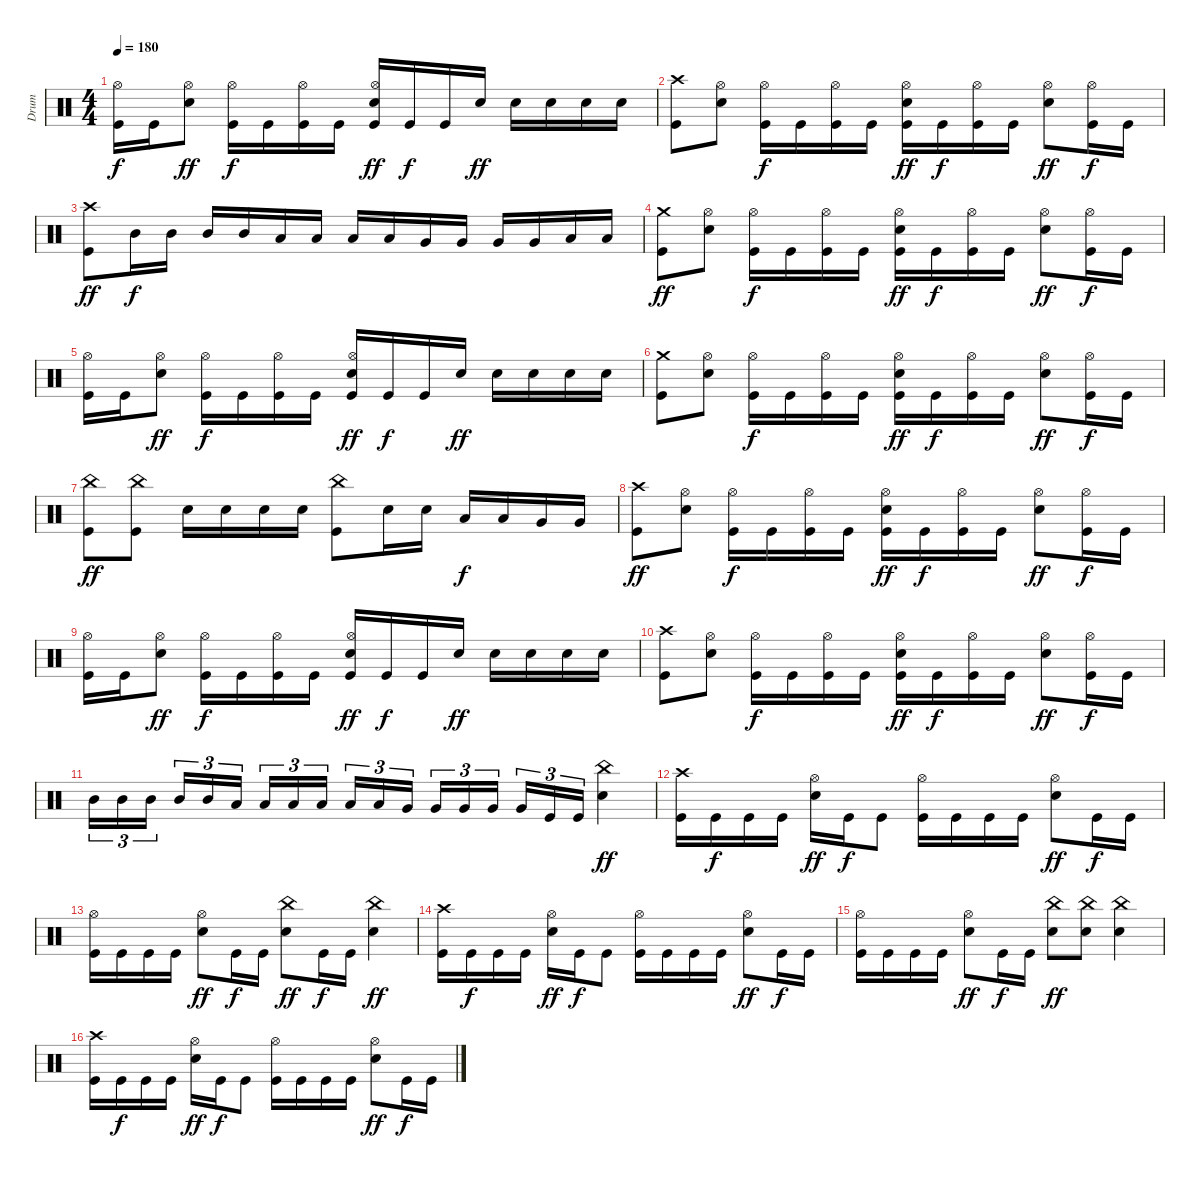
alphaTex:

\track ("Drum" "Drum") {instrument percussion}
\staff {score}
\articulation defaults
\ts (4 4)
\tempo 180
\clef neutral
\ks c
("Kick (hit)" "Hi-Hat (open)").16{dy f} "Kick (hit)".16 ("Electric Snare (hit)" "Hi-Hat (open)").8{dy ff} ("Kick (hit)" "Hi-Hat (open)").16{dy f} "Kick (hit)".16 ("Kick (hit)" "Hi-Hat (open)").16 "Kick (hit)".16 ("Kick (hit)" "Electric Snare (hit)" "Hi-Hat (open)").16{dy ff} "Kick (hit)".16{dy f} "Kick (hit)".16 "Electric Snare (hit)".16{dy ff} "Electric Snare (hit)".16 "Electric Snare (hit)".16 "Electric Snare (hit)".16 "Electric Snare (hit)".16 |
("Kick (hit)" "Crash high (hit)").8 ("Electric Snare (hit)" "Hi-Hat (open)").8 ("Kick (hit)" "Hi-Hat (open)").16{dy f} "Kick (hit)".16 ("Kick (hit)" "Hi-Hat (open)").16 "Kick (hit)".16 ("Kick (hit)" "Electric Snare (hit)" "Hi-Hat (open)").16{dy ff} "Kick (hit)".16{dy f} ("Kick (hit)" "Hi-Hat (open)").16 "Kick (hit)".16 ("Electric Snare (hit)" "Hi-Hat (open)").8{dy ff} ("Kick (hit)" "Hi-Hat (open)").16{dy f} "Kick (hit)".16 |
("Kick (hit)" "Crash high (hit)").8{dy ff} "Mid Tom (hit)".16{dy f} "Mid Tom (hit)".16 "Mid Tom (hit)".16 "Mid Tom (hit)".16 "Low Tom (hit)".16 "Low Tom (hit)".16 "Low Tom (hit)".16 "Low Tom (hit)".16 "Very Low Tom (hit)".16 "Very Low Tom (hit)".16 "Very Low Tom (hit)".16 "Very Low Tom (hit)".16 "Low Floor Tom (hit)".16 "Low Floor Tom (hit)".16 |
("Kick (hit)" "Crash medium (hit)").8{dy ff} ("Electric Snare (hit)" "Hi-Hat (open)").8 ("Kick (hit)" "Hi-Hat (open)").16{dy f} "Kick (hit)".16 ("Kick (hit)" "Hi-Hat (open)").16 "Kick (hit)".16 ("Kick (hit)" "Electric Snare (hit)" "Hi-Hat (open)").16{dy ff} "Kick (hit)".16{dy f} ("Kick (hit)" "Hi-Hat (open)").16 "Kick (hit)".16 ("Electric Snare (hit)" "Hi-Hat (open)").8{dy ff} ("Kick (hit)" "Hi-Hat (open)").16{dy f} "Kick (hit)".16 |
("Kick (hit)" "Hi-Hat (open)").16 "Kick (hit)".16 ("Electric Snare (hit)" "Hi-Hat (open)").8{dy ff} ("Kick (hit)" "Hi-Hat (open)").16{dy f} "Kick (hit)".16 ("Kick (hit)" "Hi-Hat (open)").16 "Kick (hit)".16 ("Kick (hit)" "Electric Snare (hit)" "Hi-Hat (open)").16{dy ff} "Kick (hit)".16{dy f} "Kick (hit)".16 "Electric Snare (hit)".16{dy ff} "Electric Snare (hit)".16 "Electric Snare (hit)".16 "Electric Snare (hit)".16 "Electric Snare (hit)".16 |
("Kick (hit)" "Crash medium (hit)").8 ("Electric Snare (hit)" "Hi-Hat (open)").8 ("Kick (hit)" "Hi-Hat (open)").16{dy f} "Kick (hit)".16 ("Kick (hit)" "Hi-Hat (open)").16 "Kick (hit)".16 ("Kick (hit)" "Electric Snare (hit)" "Hi-Hat (open)").16{dy ff} "Kick (hit)".16{dy f} ("Kick (hit)" "Hi-Hat (open)").16 "Kick (hit)".16 ("Electric Snare (hit)" "Hi-Hat (open)").8{dy ff} ("Kick (hit)" "Hi-Hat (open)").16{dy f} "Kick (hit)".16 |
("Kick (hit)" "China (hit)").8{dy ff} ("Kick (hit)" "China (hit)").8 "Electric Snare (hit)".16 "Electric Snare (hit)".16 "Electric Snare (hit)".16 "Electric Snare (hit)".16 ("Kick (hit)" "China (hit)").8 "Electric Snare (hit)".16 "Electric Snare (hit)".16 "Low Tom (hit)".16{dy f} "Low Tom (hit)".16 "Very Low Tom (hit)".16 "Very Low Tom (hit)".16 |
("Kick (hit)" "Crash high (hit)").8{dy ff} ("Electric Snare (hit)" "Hi-Hat (open)").8 ("Kick (hit)" "Hi-Hat (open)").16{dy f} "Kick (hit)".16 ("Kick (hit)" "Hi-Hat (open)").16 "Kick (hit)".16 ("Kick (hit)" "Electric Snare (hit)" "Hi-Hat (open)").16{dy ff} "Kick (hit)".16{dy f} ("Kick (hit)" "Hi-Hat (open)").16 "Kick (hit)".16 ("Electric Snare (hit)" "Hi-Hat (open)").8{dy ff} ("Kick (hit)" "Hi-Hat (open)").16{dy f} "Kick (hit)".16 |
("Kick (hit)" "Hi-Hat (open)").16 "Kick (hit)".16 ("Electric Snare (hit)" "Hi-Hat (open)").8{dy ff} ("Kick (hit)" "Hi-Hat (open)").16{dy f} "Kick (hit)".16 ("Kick (hit)" "Hi-Hat (open)").16 "Kick (hit)".16 ("Kick (hit)" "Electric Snare (hit)" "Hi-Hat (open)").16{dy ff} "Kick (hit)".16{dy f} "Kick (hit)".16 "Electric Snare (hit)".16{dy ff} "Electric Snare (hit)".16 "Electric Snare (hit)".16 "Electric Snare (hit)".16 "Electric Snare (hit)".16 |
("Kick (hit)" "Crash high (hit)").8 ("Electric Snare (hit)" "Hi-Hat (open)").8 ("Kick (hit)" "Hi-Hat (open)").16{dy f} "Kick (hit)".16 ("Kick (hit)" "Hi-Hat (open)").16 "Kick (hit)".16 ("Kick (hit)" "Electric Snare (hit)" "Hi-Hat (open)").16{dy ff} "Kick (hit)".16{dy f} ("Kick (hit)" "Hi-Hat (open)").16 "Kick (hit)".16 ("Electric Snare (hit)" "Hi-Hat (open)").8{dy ff} ("Kick (hit)" "Hi-Hat (open)").16{dy f} "Kick (hit)".16 |
"Mid Tom (hit)".16{tu (3 2)} "Mid Tom (hit)".16{tu (3 2)} "Mid Tom (hit)".16{tu (3 2)} "Mid Tom (hit)".16{tu (3 2)} "Mid Tom (hit)".16{tu (3 2)} "Low Tom (hit)".16{tu (3 2)} "Low Tom (hit)".16{tu (3 2)} "Low Tom (hit)".16{tu (3 2)} "Low Tom (hit)".16{tu (3 2)} "Low Tom (hit)".16{tu (3 2)} "Low Tom (hit)".16{tu (3 2)} "Very Low Tom (hit)".16{tu (3 2)} "Very Low Tom (hit)".16{tu (3 2)} "Very Low Tom (hit)".16{tu (3 2)} "Very Low Tom (hit)".16{tu (3 2)} "Very Low Tom (hit)".16{tu (3 2)} "Kick (hit)".16{tu (3 2)} "Kick (hit)".16{tu (3 2)} ("Electric Snare (hit)" "China (hit)").4{dy ff} |
("Kick (hit)" "Crash high (hit)").16 "Kick (hit)".16{dy f} "Kick (hit)".16 "Kick (hit)".16 ("Electric Snare (hit)" "Hi-Hat (open)").16{dy ff} "Kick (hit)".16{dy f} "Kick (hit)".8 ("Kick (hit)" "Hi-Hat (open)").16 "Kick (hit)".16 "Kick (hit)".16 "Kick (hit)".16 ("Electric Snare (hit)" "Hi-Hat (open)").8{dy ff} "Kick (hit)".16{dy f} "Kick (hit)".16 |
("Kick (hit)" "Hi-Hat (open)").16 "Kick (hit)".16 "Kick (hit)".16 "Kick (hit)".16 ("Electric Snare (hit)" "Hi-Hat (open)").8{dy ff} "Kick (hit)".16{dy f} "Kick (hit)".16 ("Electric Snare (hit)" "China (hit)").8{dy ff} "Kick (hit)".16{dy f} "Kick (hit)".16 ("Electric Snare (hit)" "China (hit)").4{dy ff} |
("Kick (hit)" "Crash high (hit)").16 "Kick (hit)".16{dy f} "Kick (hit)".16 "Kick (hit)".16 ("Electric Snare (hit)" "Hi-Hat (open)").16{dy ff} "Kick (hit)".16{dy f} "Kick (hit)".8 ("Kick (hit)" "Hi-Hat (open)").16 "Kick (hit)".16 "Kick (hit)".16 "Kick (hit)".16 ("Electric Snare (hit)" "Hi-Hat (open)").8{dy ff} "Kick (hit)".16{dy f} "Kick (hit)".16 |
("Kick (hit)" "Hi-Hat (open)").16 "Kick (hit)".16 "Kick (hit)".16 "Kick (hit)".16 ("Electric Snare (hit)" "Hi-Hat (open)").8{dy ff} "Kick (hit)".16{dy f} "Kick (hit)".16 ("Electric Snare (hit)" "China (hit)").8{dy ff} ("Electric Snare (hit)" "China (hit)").8 ("Electric Snare (hit)" "China (hit)").4 |
("Kick (hit)" "Crash high (hit)").16 "Kick (hit)".16{dy f} "Kick (hit)".16 "Kick (hit)".16 ("Electric Snare (hit)" "Hi-Hat (open)").16{dy ff} "Kick (hit)".16{dy f} "Kick (hit)".8 ("Kick (hit)" "Hi-Hat (open)").16 "Kick (hit)".16 "Kick (hit)".16 "Kick (hit)".16 ("Electric Snare (hit)" "Hi-Hat (open)").8{dy ff} "Kick (hit)".16{dy f} "Kick (hit)".16
